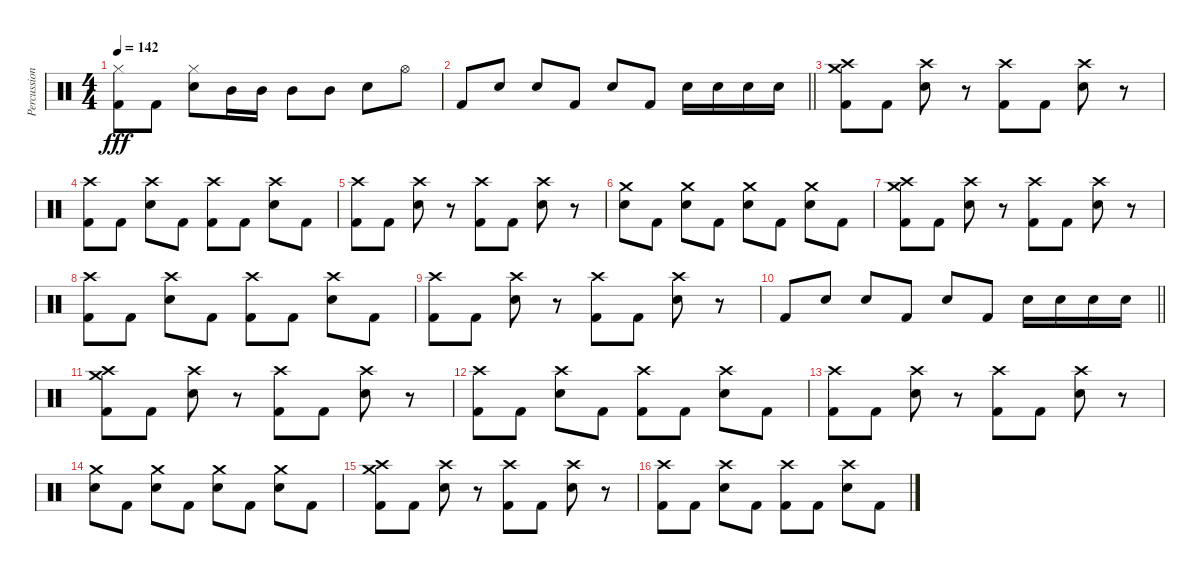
\track ("Percussion" "Percussion") {instrument percussion}
\staff {score}
\articulation defaults
\ts (4 4)
\tempo 142
\clef neutral
\ks c
("Hi-Hat (closed)" "Kick (hit) 2").8{dy fff} "Kick (hit) 2".8 ("Hi-Hat (closed)" "Electric Snare (hit)").8 "Mid Tom (hit)".16 "Mid Tom (hit)".16 "Mid Tom (hit)".8 "Mid Tom (hit)".8 "Electric Snare (hit)".8 "Hi-Hat (open)".8 |
\barLineRight lightlight "Kick (hit) 2".8 "Electric Snare (hit)".8 "Electric Snare (hit)".8 "Kick (hit) 2".8 "Electric Snare (hit)".8 "Kick (hit) 2".8 "Electric Snare (hit)".16 "Electric Snare (hit)".16 "Electric Snare (hit)".16 "Electric Snare (hit)".16
|
("Crash medium (hit)" "Crash high (hit)" "Kick (hit) 2").8 "Kick (hit) 2".8 ("Crash high (hit)" "Electric Snare (hit)").8 r.8 ("Crash high (hit)" "Kick (hit) 2").8 "Kick (hit) 2".8 ("Crash high (hit)" "Electric Snare (hit)").8 r.8 |
("Crash high (hit)" "Kick (hit) 2").8 "Kick (hit) 2".8 ("Crash high (hit)" "Electric Snare (hit)").8 "Kick (hit) 2".8 ("Crash high (hit)" "Kick (hit) 2").8 "Kick (hit) 2".8 ("Crash high (hit)" "Electric Snare (hit)").8 "Kick (hit) 2".8 |
("Crash high (hit)" "Kick (hit) 2").8 "Kick (hit) 2".8 ("Crash high (hit)" "Electric Snare (hit)").8 r.8 ("Crash high (hit)" "Kick (hit) 2").8 "Kick (hit) 2".8 ("Crash high (hit)" "Electric Snare (hit)").8 r.8 |
("Crash medium (hit)" "Electric Snare (hit)").8 "Kick (hit) 2".8 ("Crash medium (hit)" "Electric Snare (hit)").8 "Kick (hit) 2".8 ("Crash medium (hit)" "Electric Snare (hit)").8 "Kick (hit) 2".8 ("Crash medium (hit)" "Electric Snare (hit)").8 "Kick (hit) 2".8 |
("Crash medium (hit)" "Crash high (hit)" "Kick (hit) 2").8 "Kick (hit) 2".8 ("Crash high (hit)" "Electric Snare (hit)").8 r.8 ("Crash high (hit)" "Kick (hit) 2").8 "Kick (hit) 2".8 ("Crash high (hit)" "Electric Snare (hit)").8 r.8 |
("Crash high (hit)" "Kick (hit) 2").8 "Kick (hit) 2".8 ("Crash high (hit)" "Electric Snare (hit)").8 "Kick (hit) 2".8 ("Crash high (hit)" "Kick (hit) 2").8 "Kick (hit) 2".8 ("Crash high (hit)" "Electric Snare (hit)").8 "Kick (hit) 2".8 |
("Crash high (hit)" "Kick (hit) 2").8 "Kick (hit) 2".8 ("Crash high (hit)" "Electric Snare (hit)").8 r.8 ("Crash high (hit)" "Kick (hit) 2").8 "Kick (hit) 2".8 ("Crash high (hit)" "Electric Snare (hit)").8 r.8 |
\barLineRight lightlight "Kick (hit) 2".8 "Electric Snare (hit)".8 "Electric Snare (hit)".8 "Kick (hit) 2".8 "Electric Snare (hit)".8 "Kick (hit) 2".8 "Electric Snare (hit)".16 "Electric Snare (hit)".16 "Electric Snare (hit)".16 "Electric Snare (hit)".16
|
("Crash medium (hit)" "Crash high (hit)" "Kick (hit) 2").8 "Kick (hit) 2".8 ("Crash high (hit)" "Electric Snare (hit)").8 r.8 ("Crash high (hit)" "Kick (hit) 2").8 "Kick (hit) 2".8 ("Crash high (hit)" "Electric Snare (hit)").8 r.8 |
("Crash high (hit)" "Kick (hit) 2").8 "Kick (hit) 2".8 ("Crash high (hit)" "Electric Snare (hit)").8 "Kick (hit) 2".8 ("Crash high (hit)" "Kick (hit) 2").8 "Kick (hit) 2".8 ("Crash high (hit)" "Electric Snare (hit)").8 "Kick (hit) 2".8 |
("Crash high (hit)" "Kick (hit) 2").8 "Kick (hit) 2".8 ("Crash high (hit)" "Electric Snare (hit)").8 r.8 ("Crash high (hit)" "Kick (hit) 2").8 "Kick (hit) 2".8 ("Crash high (hit)" "Electric Snare (hit)").8 r.8 |
("Crash medium (hit)" "Electric Snare (hit)").8 "Kick (hit) 2".8 ("Crash medium (hit)" "Electric Snare (hit)").8 "Kick (hit) 2".8 ("Crash medium (hit)" "Electric Snare (hit)").8 "Kick (hit) 2".8 ("Crash medium (hit)" "Electric Snare (hit)").8 "Kick (hit) 2".8 |
("Crash medium (hit)" "Crash high (hit)" "Kick (hit) 2").8 "Kick (hit) 2".8 ("Crash high (hit)" "Electric Snare (hit)").8 r.8 ("Crash high (hit)" "Kick (hit) 2").8 "Kick (hit) 2".8 ("Crash high (hit)" "Electric Snare (hit)").8 r.8 |
("Crash high (hit)" "Kick (hit) 2").8 "Kick (hit) 2".8 ("Crash high (hit)" "Electric Snare (hit)").8 "Kick (hit) 2".8 ("Crash high (hit)" "Kick (hit) 2").8 "Kick (hit) 2".8 ("Crash high (hit)" "Electric Snare (hit)").8 "Kick (hit) 2".8
